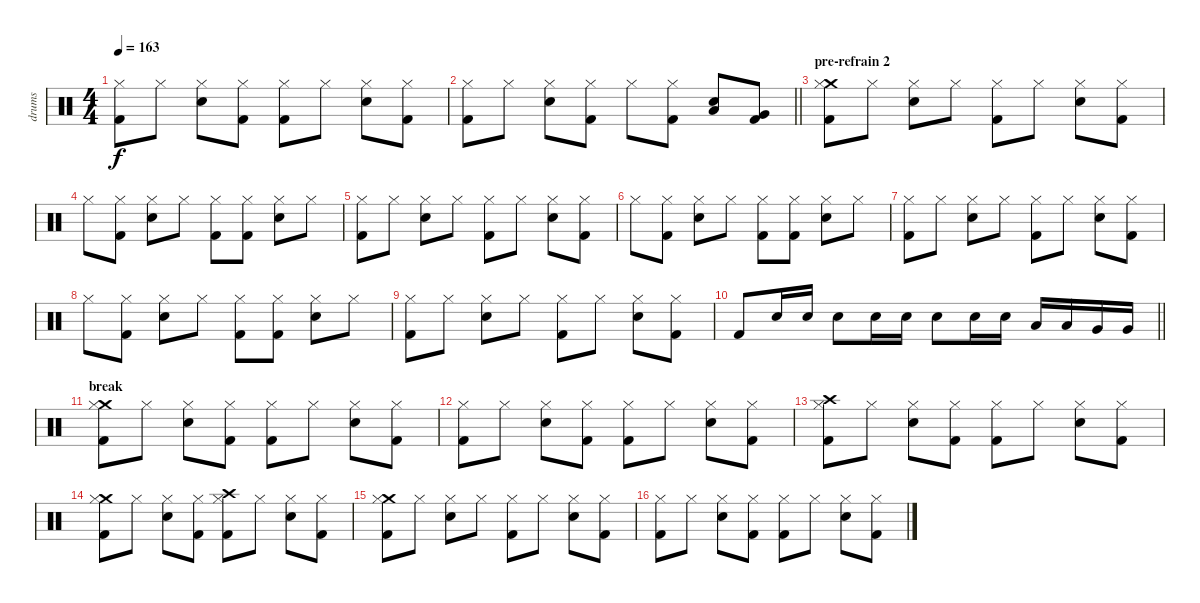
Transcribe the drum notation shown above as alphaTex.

\track ("drums" "drums") {instrument percussion}
\staff {score}
\articulation defaults
\ts (4 4)
\tempo 163
\clef neutral
\ks c
("Hi-Hat (closed)" "Kick (hit) 2").8{dy f} "Hi-Hat (closed)".8 ("Hi-Hat (closed)" "Electric Snare (hit)").8 ("Hi-Hat (closed)" "Kick (hit) 2").8 ("Hi-Hat (closed)" "Kick (hit) 2").8 "Hi-Hat (closed)".8 ("Hi-Hat (closed)" "Electric Snare (hit)").8 ("Hi-Hat (closed)" "Kick (hit) 2").8 |
\barLineRight lightlight
("Hi-Hat (closed)" "Kick (hit) 2").8 "Hi-Hat (closed)".8 ("Hi-Hat (closed)" "Electric Snare (hit)").8 ("Hi-Hat (closed)" "Kick (hit) 2").8 "Hi-Hat (closed)".8 ("Hi-Hat (closed)" "Kick (hit) 2").8 ("Low Tom (hit)" "Electric Snare (hit)").8 ("Very Low Tom (hit)" "Kick (hit) 2").8 |
\section ("" "pre-refrain 2")
("Crash medium (hit)" "Hi-Hat (closed)" "Kick (hit) 2").8 "Hi-Hat (closed)".8 ("Hi-Hat (closed)" "Electric Snare (hit)").8 "Hi-Hat (closed)".8 ("Hi-Hat (closed)" "Kick (hit) 2").8 "Hi-Hat (closed)".8 ("Hi-Hat (closed)" "Electric Snare (hit)").8 ("Hi-Hat (closed)" "Kick (hit) 2").8 |
"Hi-Hat (closed)".8 ("Hi-Hat (closed)" "Kick (hit) 2").8 ("Hi-Hat (closed)" "Electric Snare (hit)").8 "Hi-Hat (closed)".8 ("Hi-Hat (closed)" "Kick (hit) 2").8 ("Hi-Hat (closed)" "Kick (hit) 2").8 ("Hi-Hat (closed)" "Electric Snare (hit)").8 "Hi-Hat (closed)".8 |
("Hi-Hat (closed)" "Kick (hit) 2").8 "Hi-Hat (closed)".8 ("Hi-Hat (closed)" "Electric Snare (hit)").8 "Hi-Hat (closed)".8 ("Hi-Hat (closed)" "Kick (hit) 2").8 "Hi-Hat (closed)".8 ("Hi-Hat (closed)" "Electric Snare (hit)").8 ("Hi-Hat (closed)" "Kick (hit) 2").8 |
"Hi-Hat (closed)".8 ("Hi-Hat (closed)" "Kick (hit) 2").8 ("Hi-Hat (closed)" "Electric Snare (hit)").8 "Hi-Hat (closed)".8 ("Hi-Hat (closed)" "Kick (hit) 2").8 ("Hi-Hat (closed)" "Kick (hit) 2").8 ("Hi-Hat (closed)" "Electric Snare (hit)").8 "Hi-Hat (closed)".8 |
("Hi-Hat (closed)" "Kick (hit) 2").8 "Hi-Hat (closed)".8 ("Hi-Hat (closed)" "Electric Snare (hit)").8 "Hi-Hat (closed)".8 ("Hi-Hat (closed)" "Kick (hit) 2").8 "Hi-Hat (closed)".8 ("Hi-Hat (closed)" "Electric Snare (hit)").8 ("Hi-Hat (closed)" "Kick (hit) 2").8 |
"Hi-Hat (closed)".8 ("Hi-Hat (closed)" "Kick (hit) 2").8 ("Hi-Hat (closed)" "Electric Snare (hit)").8 "Hi-Hat (closed)".8 ("Hi-Hat (closed)" "Kick (hit) 2").8 ("Hi-Hat (closed)" "Kick (hit) 2").8 ("Hi-Hat (closed)" "Electric Snare (hit)").8 "Hi-Hat (closed)".8 |
("Hi-Hat (closed)" "Kick (hit) 2").8 "Hi-Hat (closed)".8 ("Hi-Hat (closed)" "Electric Snare (hit)").8 "Hi-Hat (closed)".8 ("Hi-Hat (closed)" "Kick (hit) 2").8 "Hi-Hat (closed)".8 ("Hi-Hat (closed)" "Electric Snare (hit)").8 ("Hi-Hat (closed)" "Kick (hit) 2").8 |
\barLineRight lightlight "Kick (hit) 2".8 "Electric Snare (hit)".16 "Electric Snare (hit)".16 "Electric Snare (hit)".8 "Electric Snare (hit)".16 "Electric Snare (hit)".16 "Electric Snare (hit)".8 "Electric Snare (hit)".16 "Electric Snare (hit)".16 "Low Tom (hit)".16 "Low Tom (hit)".16 "Very Low Tom (hit)".16 "Very Low Tom (hit)".16
|
\section ("" "break")
("Crash medium (hit)" "Hi-Hat (closed)" "Kick (hit) 2").8 "Hi-Hat (closed)".8 ("Hi-Hat (closed)" "Electric Snare (hit)").8 ("Hi-Hat (closed)" "Kick (hit) 2").8 ("Hi-Hat (closed)" "Kick (hit) 2").8 "Hi-Hat (closed)".8 ("Hi-Hat (closed)" "Electric Snare (hit)").8 ("Hi-Hat (closed)" "Kick (hit) 2").8 |
("Hi-Hat (closed)" "Kick (hit) 2").8 "Hi-Hat (closed)".8 ("Hi-Hat (closed)" "Electric Snare (hit)").8 ("Hi-Hat (closed)" "Kick (hit) 2").8 ("Hi-Hat (closed)" "Kick (hit) 2").8 "Hi-Hat (closed)".8 ("Hi-Hat (closed)" "Electric Snare (hit)").8 ("Hi-Hat (closed)" "Kick (hit) 2").8 |
("Crash high (hit)" "Hi-Hat (closed)" "Kick (hit) 2").8 "Hi-Hat (closed)".8 ("Hi-Hat (closed)" "Electric Snare (hit)").8 ("Hi-Hat (closed)" "Kick (hit) 2").8 ("Hi-Hat (closed)" "Kick (hit) 2").8 "Hi-Hat (closed)".8 ("Hi-Hat (closed)" "Electric Snare (hit)").8 ("Hi-Hat (closed)" "Kick (hit) 2").8 |
("Crash medium (hit)" "Hi-Hat (closed)" "Kick (hit) 2").8 "Hi-Hat (closed)".8 ("Hi-Hat (closed)" "Electric Snare (hit)").8 ("Hi-Hat (closed)" "Kick (hit) 2").8 ("Crash high (hit)" "Hi-Hat (closed)" "Kick (hit) 2").8 "Hi-Hat (closed)".8 ("Hi-Hat (closed)" "Electric Snare (hit)").8 ("Hi-Hat (closed)" "Kick (hit) 2").8 |
("Crash medium (hit)" "Hi-Hat (closed)" "Kick (hit) 2").8 "Hi-Hat (closed)".8 ("Hi-Hat (closed)" "Electric Snare (hit)").8 "Hi-Hat (closed)".8 ("Hi-Hat (closed)" "Kick (hit) 2").8 "Hi-Hat (closed)".8 ("Hi-Hat (closed)" "Electric Snare (hit)").8 ("Hi-Hat (closed)" "Kick (hit) 2").8 |
("Hi-Hat (closed)" "Kick (hit) 2").8 "Hi-Hat (closed)".8 ("Hi-Hat (closed)" "Electric Snare (hit)").8 ("Hi-Hat (closed)" "Kick (hit) 2").8 ("Hi-Hat (closed)" "Kick (hit) 2").8 "Hi-Hat (closed)".8 ("Hi-Hat (closed)" "Electric Snare (hit)").8 ("Hi-Hat (closed)" "Kick (hit) 2").8
